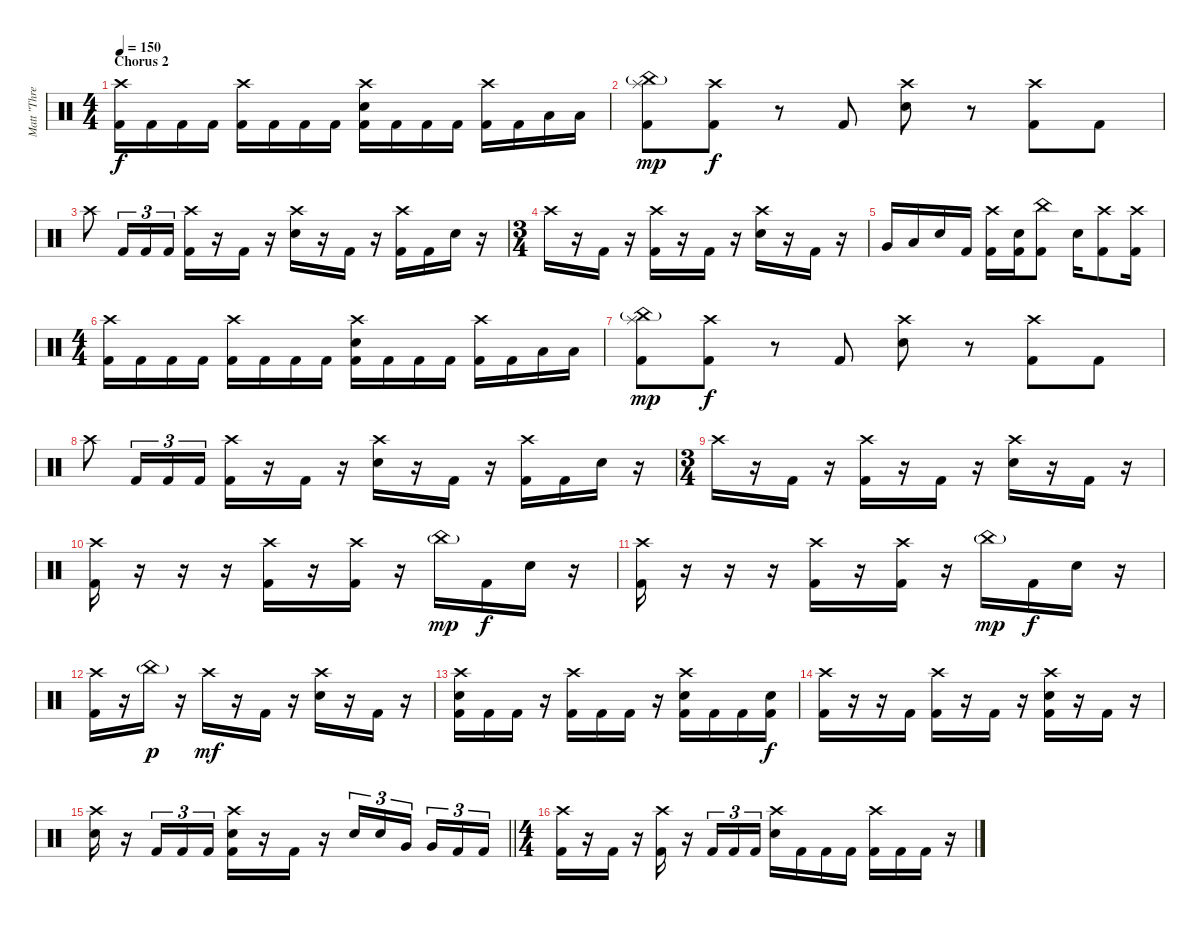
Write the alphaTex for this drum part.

\track ("Matt \"Three Cymbals/Swing\" Halpern" "Matt \"Thre") {instrument percussion}
\staff {score}
\articulation defaults
\ts (4 4)
\section ("" "Chorus 2")
\tempo 150
\clef neutral
\ks c
("Crash high (hit)" "Kick (hit) 2").16{dy f} "Kick (hit) 2".16 "Kick (hit) 2".16 "Kick (hit) 2".16 ("Crash high (hit)" "Kick (hit) 2").16 "Kick (hit) 2".16 "Kick (hit) 2".16 "Kick (hit) 2".16 ("Crash high (hit)" "Snare (hit) 2" "Kick (hit) 2").16 "Kick (hit) 2".16 "Kick (hit) 2".16 "Kick (hit) 2".16 ("Crash high (hit)" "Kick (hit) 2").16 "Kick (hit) 2".16 "Low Floor Tom (hit)".16 "Low Floor Tom (hit)".16 |
("Splash (hit)" "China (hit)"{g} "Kick (hit) 2").8{dy mp} ("Crash high (hit)" "Kick (hit) 2").8{dy f} r.8 "Kick (hit) 2".8 ("Crash high (hit)" "Snare (hit) 2").8 r.8 ("Crash high (hit)" "Kick (hit) 2").8 "Kick (hit) 2".8 |
"Crash high (hit)".8 "Kick (hit) 2".16{tu (3 2)} "Kick (hit) 2".16{tu (3 2)} "Kick (hit) 2".16{tu (3 2)} ("Crash high (hit)" "Kick (hit) 2").16 r.16 "Kick (hit) 2".16 r.16 ("Crash high (hit)" "Snare (hit) 2").16 r.16 "Kick (hit) 2".16 r.16 ("Crash high (hit)" "Kick (hit) 2").16 "Kick (hit) 2".16 "Snare (hit) 2".16 r.16 |
\ts (3 4)
"Crash high (hit)".16 r.16 "Kick (hit) 2".16 r.16 ("Crash high (hit)" "Kick (hit) 2").16 r.16 "Kick (hit) 2".16 r.16 ("Crash high (hit)" "Snare (hit) 2").16 r.16 "Kick (hit) 2".16 r.16 |
"Very Low Tom (hit)".16 "Low Floor Tom (hit)".16 "Snare (hit) 2".16 "Kick (hit) 2".16 ("Crash high (hit)" "Kick (hit) 2").16 ("Snare (hit) 2" "Kick (hit) 2").16 ("China (hit)" "Kick (hit) 2").8 "Snare (hit) 2".16 ("Crash high (hit)" "Kick (hit) 2").8 ("Crash high (hit)" "Kick (hit) 2").16 |
\ts (4 4)
("Crash high (hit)" "Kick (hit) 2").16 "Kick (hit) 2".16 "Kick (hit) 2".16 "Kick (hit) 2".16 ("Crash high (hit)" "Kick (hit) 2").16 "Kick (hit) 2".16 "Kick (hit) 2".16 "Kick (hit) 2".16 ("Crash high (hit)" "Snare (hit) 2" "Kick (hit) 2").16 "Kick (hit) 2".16 "Kick (hit) 2".16 "Kick (hit) 2".16 ("Crash high (hit)" "Kick (hit) 2").16 "Kick (hit) 2".16 "Low Floor Tom (hit)".16 "Low Floor Tom (hit)".16 |
("Splash (hit)" "China (hit)"{g} "Kick (hit) 2").8{dy mp} ("Crash high (hit)" "Kick (hit) 2").8{dy f} r.8 "Kick (hit) 2".8 ("Crash high (hit)" "Snare (hit) 2").8 r.8 ("Crash high (hit)" "Kick (hit) 2").8 "Kick (hit) 2".8 |
"Crash high (hit)".8 "Kick (hit) 2".16{tu (3 2)} "Kick (hit) 2".16{tu (3 2)} "Kick (hit) 2".16{tu (3 2)} ("Crash high (hit)" "Kick (hit) 2").16 r.16 "Kick (hit) 2".16 r.16 ("Crash high (hit)" "Snare (hit) 2").16 r.16 "Kick (hit) 2".16 r.16 ("Crash high (hit)" "Kick (hit) 2").16 "Kick (hit) 2".16 "Snare (hit) 2".16 r.16 |
\ts (3 4)
"Crash high (hit)".16 r.16 "Kick (hit) 2".16 r.16 ("Crash high (hit)" "Kick (hit) 2").16 r.16 "Kick (hit) 2".16 r.16 ("Crash high (hit)" "Snare (hit) 2").16 r.16 "Kick (hit) 2".16 r.16 |
("Crash high (hit)" "Kick (hit) 2").16 r.16 r.16 r.16 ("Crash high (hit)" "Kick (hit) 2").16 r.16 ("Crash high (hit)" "Kick (hit) 2").16 r.16 "China (hit)"{g}.16{dy mp} "Kick (hit) 2".16{dy f} "Snare (hit) 2".16 r.16 |
("Crash high (hit)" "Kick (hit) 2").16 r.16 r.16 r.16 ("Crash high (hit)" "Kick (hit) 2").16 r.16 ("Crash high (hit)" "Kick (hit) 2").16 r.16 "China (hit)"{g}.16{dy mp} "Kick (hit) 2".16{dy f} "Snare (hit) 2".16 r.16 |
("Crash high (hit)" "Kick (hit) 2").16 r.16 "China (hit)"{g}.16{dy p} r.16 "Crash high (hit)".16{dy mf} r.16 "Kick (hit) 2".16 r.16 ("Crash high (hit)" "Snare (hit) 2").16 r.16 "Kick (hit) 2".16 r.16 |
("Crash high (hit)" "Snare (hit) 2" "Kick (hit) 2").16 "Kick (hit) 2".16 "Kick (hit) 2".16 r.16 ("Crash high (hit)" "Kick (hit) 2").16 "Kick (hit) 2".16 "Kick (hit) 2".16 r.16 ("Crash high (hit)" "Snare (hit) 2" "Kick (hit) 2").16 "Kick (hit) 2".16 "Kick (hit) 2".16 ("Snare (hit) 2" "Kick (hit) 2").16{dy f} |
("Crash high (hit)" "Kick (hit) 2").16 r.16 r.16 "Kick (hit) 2".16 ("Crash high (hit)" "Kick (hit) 2").16 r.16 "Kick (hit) 2".16 r.16 ("Crash high (hit)" "Snare (hit) 2" "Kick (hit) 2").16 r.16 "Kick (hit) 2".16 r.16 |
\barLineRight lightlight
("Crash high (hit)" "Snare (hit) 2").16 r.16 "Kick (hit) 2".16{tu (3 2)} "Kick (hit) 2".16{tu (3 2)} "Kick (hit) 2".16{tu (3 2)} ("Crash high (hit)" "Snare (hit) 2" "Kick (hit) 2").16 r.16 "Kick (hit) 2".16 r.16 "Snare (hit) 2".16{tu (3 2)} "Snare (hit) 2".16{tu (3 2)} "Very Low Tom (hit)".16{tu (3 2) beam splitsecondary} "Very Low Tom (hit)".16{tu (3 2)} "Kick (hit) 2".16{tu (3 2)} "Kick (hit) 2".16{tu (3 2)} |
\ts (4 4)
("Crash high (hit)" "Kick (hit) 2").16 r.16 "Kick (hit) 2".16 r.16 ("Crash high (hit)" "Kick (hit) 2").16 r.16 "Kick (hit) 2".16{tu (3 2)} "Kick (hit) 2".16{tu (3 2)} "Kick (hit) 2".16{tu (3 2)} ("Crash high (hit)" "Snare (hit) 2").16 "Kick (hit) 2".16 "Kick (hit) 2".16 "Kick (hit) 2".16 ("Crash high (hit)" "Kick (hit) 2").16 "Kick (hit) 2".16 "Kick (hit) 2".16 r.16
